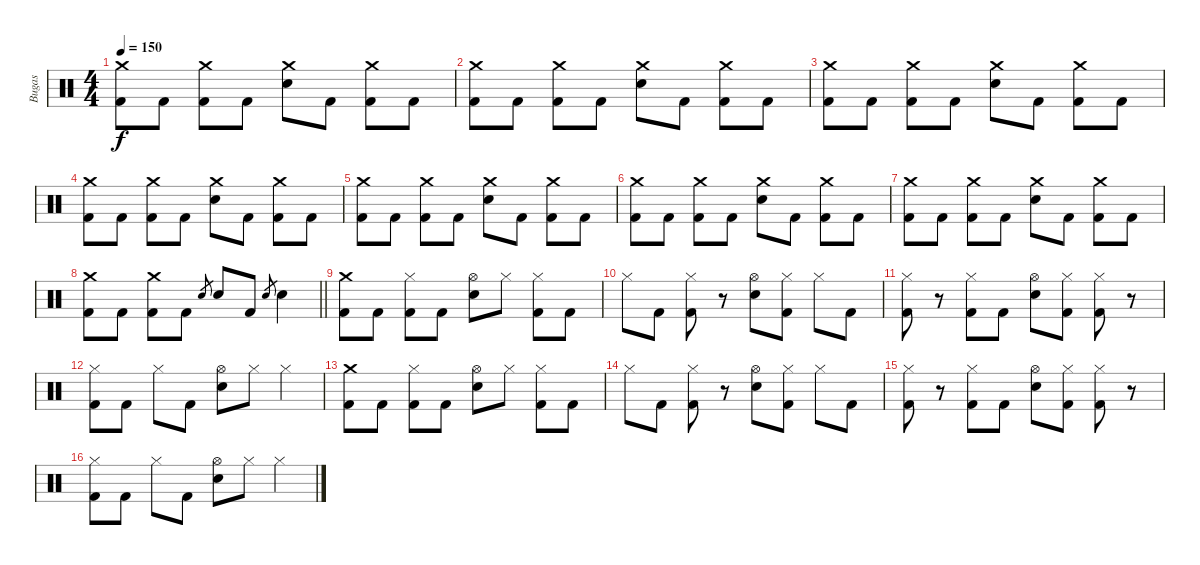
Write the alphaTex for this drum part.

\track ("Bugas" "Bugas") {instrument percussion}
\staff {score}
\articulation defaults
\ts (4 4)
\tempo 150
\clef neutral
\ks c
("Crash medium (hit)" "Kick (hit) 2").8{dy f} "Kick (hit) 2".8 ("Crash medium (hit)" "Kick (hit) 2").8 "Kick (hit) 2".8 ("Crash medium (hit)" "Electric Snare (hit)").8 "Kick (hit) 2".8 ("Crash medium (hit)" "Kick (hit) 2").8 "Kick (hit) 2".8 |
("Crash medium (hit)" "Kick (hit) 2").8 "Kick (hit) 2".8 ("Crash medium (hit)" "Kick (hit) 2").8 "Kick (hit) 2".8 ("Crash medium (hit)" "Electric Snare (hit)").8 "Kick (hit) 2".8 ("Crash medium (hit)" "Kick (hit) 2").8 "Kick (hit) 2".8 |
("Crash medium (hit)" "Kick (hit) 2").8 "Kick (hit) 2".8 ("Crash medium (hit)" "Kick (hit) 2").8 "Kick (hit) 2".8 ("Crash medium (hit)" "Electric Snare (hit)").8 "Kick (hit) 2".8 ("Crash medium (hit)" "Kick (hit) 2").8 "Kick (hit) 2".8 |
("Crash medium (hit)" "Kick (hit) 2").8 "Kick (hit) 2".8 ("Crash medium (hit)" "Kick (hit) 2").8 "Kick (hit) 2".8 ("Crash medium (hit)" "Electric Snare (hit)").8 "Kick (hit) 2".8 ("Crash medium (hit)" "Kick (hit) 2").8 "Kick (hit) 2".8 |
("Crash medium (hit)" "Kick (hit) 2").8 "Kick (hit) 2".8 ("Crash medium (hit)" "Kick (hit) 2").8 "Kick (hit) 2".8 ("Crash medium (hit)" "Electric Snare (hit)").8 "Kick (hit) 2".8 ("Crash medium (hit)" "Kick (hit) 2").8 "Kick (hit) 2".8 |
("Crash medium (hit)" "Kick (hit) 2").8 "Kick (hit) 2".8 ("Crash medium (hit)" "Kick (hit) 2").8 "Kick (hit) 2".8 ("Crash medium (hit)" "Electric Snare (hit)").8 "Kick (hit) 2".8 ("Crash medium (hit)" "Kick (hit) 2").8 "Kick (hit) 2".8 |
("Crash medium (hit)" "Kick (hit) 2").8 "Kick (hit) 2".8 ("Crash medium (hit)" "Kick (hit) 2").8 "Kick (hit) 2".8 ("Crash medium (hit)" "Electric Snare (hit)").8 "Kick (hit) 2".8 ("Crash medium (hit)" "Kick (hit) 2").8 "Kick (hit) 2".8 |
\barLineRight lightlight
("Crash medium (hit)" "Kick (hit) 2").8 "Kick (hit) 2".8 ("Crash medium (hit)" "Kick (hit) 2").8 "Kick (hit) 2".8 "Electric Snare (hit)".8{gr} "Electric Snare (hit)".8 "Kick (hit) 2".8 "Electric Snare (hit)".8{gr} "Electric Snare (hit)".4 |
("Crash medium (hit)" "Kick (hit) 2").8 "Kick (hit) 2".8 ("Hi-Hat (closed)" "Kick (hit) 2").8 "Kick (hit) 2".8 ("Hi-Hat (open)" "Electric Snare (hit)").8 "Hi-Hat (closed)".8 ("Hi-Hat (closed)" "Kick (hit) 2").8 "Kick (hit) 2".8 |
"Hi-Hat (closed)".8 "Kick (hit) 2".8 ("Hi-Hat (closed)" "Kick (hit) 2").8 r.8 ("Hi-Hat (open)" "Electric Snare (hit)").8 ("Hi-Hat (closed)" "Kick (hit) 2").8 "Hi-Hat (closed)".8 "Kick (hit) 2".8 |
("Hi-Hat (closed)" "Kick (hit) 2").8 r.8 ("Hi-Hat (closed)" "Kick (hit) 2").8 "Kick (hit) 2".8 ("Hi-Hat (open)" "Electric Snare (hit)").8 ("Hi-Hat (closed)" "Kick (hit) 2").8 ("Hi-Hat (closed)" "Kick (hit) 2").8 r.8 |
("Hi-Hat (closed)" "Kick (hit) 2").8 "Kick (hit) 2".8 "Hi-Hat (closed)".8 "Kick (hit) 2".8 ("Hi-Hat (open)" "Electric Snare (hit)").8 "Hi-Hat (closed)".8 "Hi-Hat (closed)".4 |
("Crash medium (hit)" "Kick (hit) 2").8 "Kick (hit) 2".8 ("Hi-Hat (closed)" "Kick (hit) 2").8 "Kick (hit) 2".8 ("Hi-Hat (open)" "Electric Snare (hit)").8 "Hi-Hat (closed)".8 ("Hi-Hat (closed)" "Kick (hit) 2").8 "Kick (hit) 2".8 |
"Hi-Hat (closed)".8 "Kick (hit) 2".8 ("Hi-Hat (closed)" "Kick (hit) 2").8 r.8 ("Hi-Hat (open)" "Electric Snare (hit)").8 ("Hi-Hat (closed)" "Kick (hit) 2").8 "Hi-Hat (closed)".8 "Kick (hit) 2".8 |
("Hi-Hat (closed)" "Kick (hit) 2").8 r.8 ("Hi-Hat (closed)" "Kick (hit) 2").8 "Kick (hit) 2".8 ("Hi-Hat (open)" "Electric Snare (hit)").8 ("Hi-Hat (closed)" "Kick (hit) 2").8 ("Hi-Hat (closed)" "Kick (hit) 2").8 r.8 |
("Hi-Hat (closed)" "Kick (hit) 2").8 "Kick (hit) 2".8 "Hi-Hat (closed)".8 "Kick (hit) 2".8 ("Hi-Hat (open)" "Electric Snare (hit)").8 "Hi-Hat (closed)".8 "Hi-Hat (closed)".4
